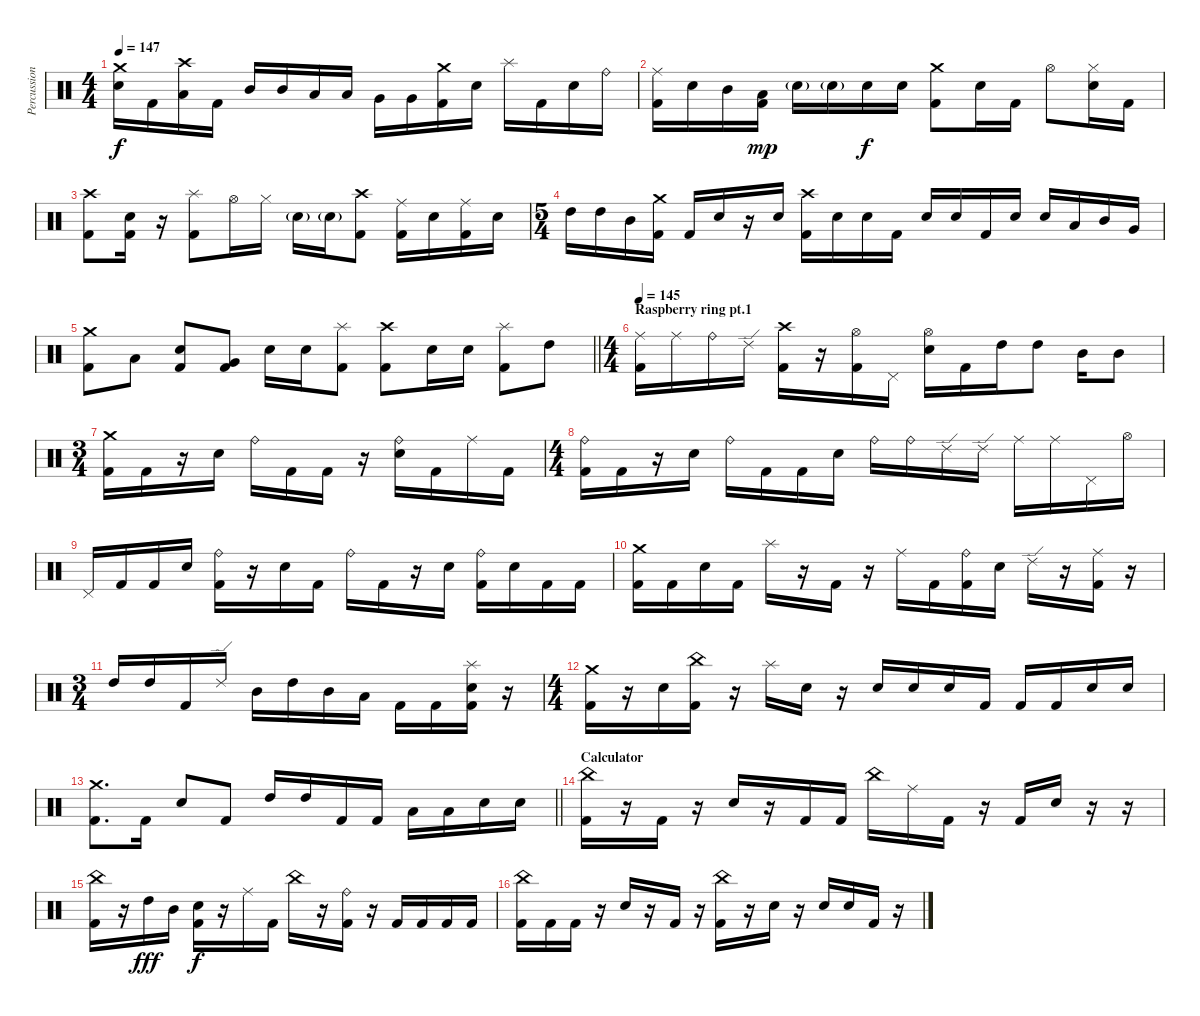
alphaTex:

\track ("Percussion" "Percussion") {instrument percussion}
\staff {score}
\articulation defaults
\ts (4 4)
\tempo 147
\clef neutral
\ks c
("Crash medium (hit)" "Electric Snare (hit)").16{dy f} "Kick (hit) 2".16 ("Crash high (hit)" "Low Tom (hit)").16 "Kick (hit) 2".16 "Mid Tom (hit)".16 "Mid Tom (hit)".16 "Low Tom (hit)".16 "Low Tom (hit)".16 "Very Low Tom (hit)".16 "Very Low Tom (hit)".16 ("Crash medium (hit)" "Kick (hit) 2").16 "Electric Snare (hit)".16 "Splash (hit)".16 "Kick (hit) 2".16 "Electric Snare (hit)".16 "Ride (bell)".16 |
("Ride (middle)" "Kick (hit) 2").16 "Electric Snare (hit)".16 "Mid Tom (hit)".16 ("Low Tom (hit)" "Kick (hit) 2").16{dy mp} "Electric Snare (hit)"{g}.16 "Electric Snare (hit)"{g}.16 "Electric Snare (hit)".16{dy f} "Electric Snare (hit)".16 ("Crash medium (hit)" "Kick (hit) 2").8 "Electric Snare (hit)".16 "Kick (hit) 2".16 "Hi-Hat (open)".8 ("Hi-Hat (closed)" "Electric Snare (hit)").16 "Kick (hit) 2".16 |
("Crash high (hit)" "Kick (hit) 2").8 ("Electric Snare (hit)" "Kick (hit) 2").16 r.16 ("Splash (hit)" "Kick (hit) 2").8 "Hi-Hat (open)".16 "Hi-Hat (closed)".16 "Electric Snare (hit)"{g}.16 "Electric Snare (hit)"{g}.16 ("Crash high (hit)" "Kick (hit) 2").8 ("Ride (middle)" "Kick (hit) 2").16 "Electric Snare (hit)".16 ("Ride (middle)" "Kick (hit) 2").16 "Electric Snare (hit)".16 |
\ts (5 4)
"High Tom (hit)".16 "High Tom (hit)".16 "Mid Tom (hit)".16 ("Crash medium (hit)" "Kick (hit) 2").16 "Kick (hit) 2".16 "Electric Snare (hit)".16 r.16 "Electric Snare (hit)".16 ("Crash high (hit)" "Kick (hit) 2").16 "Electric Snare (hit)".16 "Electric Snare (hit)".16 "Kick (hit) 2".16 "Electric Snare (hit)".16 "Electric Snare (hit)".16 "Kick (hit) 2".16 "Electric Snare (hit)".16 "Electric Snare (hit)".16 "Low Tom (hit)".16 "Mid Tom (hit)".16 "Very Low Tom (hit)".16 |
\barLineRight lightlight
("Crash medium (hit)" "Kick (hit) 2").8 "Low Tom (hit)".8 ("Electric Snare (hit)" "Kick (hit) 2").8 ("Very Low Tom (hit)" "Kick (hit) 2").8 "Electric Snare (hit)".16 "Electric Snare (hit)".16 ("Splash (hit)" "Kick (hit) 2").8 ("Crash high (hit)" "Kick (hit) 2").8 "Electric Snare (hit)".16 "Electric Snare (hit)".16 ("Splash (hit)" "Kick (hit) 2").8 "High Tom (hit)".8 |
\ts (4 4)
\section ("" "Raspberry ring pt.1")
\tempo 145
("Ride (middle)" "Kick (hit) 2").16 "Ride (middle)".16 "Ride (bell)".16 "Ride (edge) 2".16 ("Crash high (hit)" "Kick (hit) 2").16 r.16 ("Hi-Hat (open)" "Kick (hit) 2").16 "Pedal Hi-Hat (hit)".16 ("Hi-Hat (open)" "Electric Snare (hit)").16 "Kick (hit) 2".16 "High Tom (hit)".16 "High Tom (hit)".8 "Mid Tom (hit)".16 "Mid Tom (hit)".8 |
\ts (3 4)
("Crash medium (hit)" "Kick (hit) 2").16 "Kick (hit) 2".16 r.16 "Electric Snare (hit)".16 "Ride (bell)".16 "Kick (hit) 2".16 "Kick (hit) 2".16 r.16 ("Ride (bell)" "Electric Snare (hit)").16 "Kick (hit) 2".16 "Ride (middle)".16 "Kick (hit) 2".16 |
\ts (4 4)
("Ride (bell)" "Kick (hit) 2").16 "Kick (hit) 2".16 r.16 "Electric Snare (hit)".16 "Ride (bell)".16 "Kick (hit) 2".16 "Kick (hit) 2".16 "Electric Snare (hit)".16 "Ride (bell)".16 "Ride (bell)".16 "Ride (edge) 2".16 "Ride (edge) 2".16 "Ride (middle)".16 "Ride (middle)".16 "Pedal Hi-Hat (hit)".16 "Hi-Hat (open)".16 |
"Pedal Hi-Hat (hit)".16 "Kick (hit) 2".16 "Kick (hit) 2".16 "Electric Snare (hit)".16 ("Ride (bell)" "Kick (hit) 2").16 r.16 "Electric Snare (hit)".16 "Kick (hit) 2".16 "Ride (bell)".16 "Kick (hit) 2".16 r.16 "Electric Snare (hit)".16 ("Ride (bell)" "Kick (hit) 2").16 "Electric Snare (hit)".16 "Kick (hit) 2".16 "Kick (hit) 2".16 |
("Crash medium (hit)" "Kick (hit) 2").16 "Kick (hit) 2".16 "Electric Snare (hit)".16 "Kick (hit) 2".16 "Splash (hit)".16 r.16 "Kick (hit) 2".16 r.16 "Ride (middle)".16 "Kick (hit) 2".16 ("Ride (bell)" "Kick (hit) 2").16 "Electric Snare (hit)".16 "Ride (edge) 2".16 r.16 ("Ride (middle)" "Kick (hit) 2").16 r.16 |
\ts (3 4)
"High Tom (hit)".16 "High Tom (hit)".16 "Kick (hit) 2".16 "Ride (edge) 2".16 "Mid Tom (hit)".16 "High Tom (hit)".16 "Mid Tom (hit)".16 "Low Tom (hit)".16 "Kick (hit) 2".16 "Kick (hit) 2".16 ("Splash (hit)" "Electric Snare (hit)" "Kick (hit) 2").16 r.16 |
\ts (4 4)
("Crash medium (hit)" "Kick (hit) 2").16 r.16 "Electric Snare (hit)".16 ("China (hit)" "Kick (hit) 2").16 r.16 "Splash (hit)".16 "Electric Snare (hit)".16 r.16 "Electric Snare (hit)".16 "Electric Snare (hit)".16 "Electric Snare (hit)".16 "Kick (hit) 2".16 "Kick (hit) 2".16 "Kick (hit) 2".16 "Electric Snare (hit)".16 "Electric Snare (hit)".16 |
\barLineRight lightlight
("Crash medium (hit)" "Kick (hit) 2").8{d} "Kick (hit) 2".16 "Electric Snare (hit)".8 "Kick (hit) 2".8 "High Tom (hit)".16 "High Tom (hit)".16 "Kick (hit) 2".16 "Kick (hit) 2".16 "Low Tom (hit)".16 "Low Tom (hit)".16 "Electric Snare (hit)".16 "Electric Snare (hit)".16 |
\section ("" "Calculator")
("China (hit)" "Kick (hit) 2").16 r.16 "Kick (hit) 2".16 r.16 "Electric Snare (hit)".16 r.16 "Kick (hit) 2".16 "Kick (hit) 2".16 "China (hit)".16 "Ride (middle)".16 "Kick (hit) 2".16 r.16 "Kick (hit) 2".16 "Electric Snare (hit)".16 r.16 r.16 |
("China (hit)" "Kick (hit) 2").16 r.16 "High Tom (hit)".16{dy fff} "Mid Tom (hit)".16 ("Electric Snare (hit)" "Kick (hit) 2").16{dy f} r.16 "Ride (middle)".16 "Kick (hit) 2".16 "China (hit)".16 r.16 ("Ride (bell)" "Kick (hit) 2").16 r.16 "Kick (hit) 2".16 "Kick (hit) 2".16 "Kick (hit) 2".16 "Kick (hit) 2".16 |
("China (hit)" "Kick (hit) 2").16 "Kick (hit) 2".16 "Kick (hit) 2".16 r.16 "Electric Snare (hit)".16 r.16 "Kick (hit) 2".16 r.16 ("China (hit)" "Kick (hit) 2").16 r.16 "Electric Snare (hit)".16 r.16 "Electric Snare (hit)".16 "Electric Snare (hit)".16 "Kick (hit) 2".16 r.16
